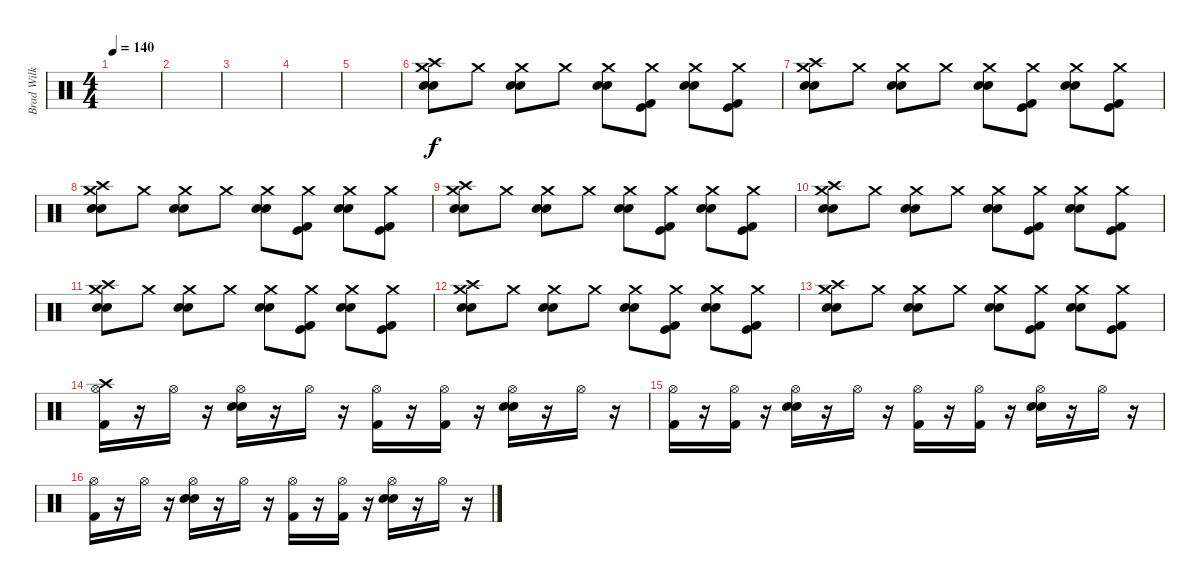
\track ("Brad Wilk" "Brad Wilk") {instrument percussion}
\staff {score}
\articulation defaults
\ts (4 4)
\tempo 140
\clef neutral
\ks c
|
|
|
|
|
("Crash medium (hit)" "Crash high (hit)" "Snare (hit) 2" "Electric Snare (hit)").8 "Crash medium (hit)".8 ("Crash medium (hit)" "Electric Snare (hit)" "Snare (hit) 2").8 "Crash medium (hit)".8 ("Crash medium (hit)" "Electric Snare (hit)" "Snare (hit) 2").8 ("Crash medium (hit)" "Kick (hit)" "Kick (hit) 2").8 ("Crash medium (hit)" "Electric Snare (hit)" "Snare (hit) 2").8 ("Crash medium (hit)" "Kick (hit)" "Kick (hit) 2").8 |
("Crash medium (hit)" "Crash high (hit)" "Snare (hit) 2" "Electric Snare (hit)").8 "Crash medium (hit)".8 ("Crash medium (hit)" "Electric Snare (hit)" "Snare (hit) 2").8 "Crash medium (hit)".8 ("Crash medium (hit)" "Electric Snare (hit)" "Snare (hit) 2").8 ("Crash medium (hit)" "Kick (hit)" "Kick (hit) 2").8 ("Crash medium (hit)" "Electric Snare (hit)" "Snare (hit) 2").8 ("Crash medium (hit)" "Kick (hit)" "Kick (hit) 2").8 |
("Crash medium (hit)" "Crash high (hit)" "Snare (hit) 2" "Electric Snare (hit)").8 "Crash medium (hit)".8 ("Crash medium (hit)" "Electric Snare (hit)" "Snare (hit) 2").8 "Crash medium (hit)".8 ("Crash medium (hit)" "Electric Snare (hit)" "Snare (hit) 2").8 ("Crash medium (hit)" "Kick (hit)" "Kick (hit) 2").8 ("Crash medium (hit)" "Electric Snare (hit)" "Snare (hit) 2").8 ("Crash medium (hit)" "Kick (hit)" "Kick (hit) 2").8 |
("Crash medium (hit)" "Crash high (hit)" "Snare (hit) 2" "Electric Snare (hit)").8 "Crash medium (hit)".8 ("Crash medium (hit)" "Electric Snare (hit)" "Snare (hit) 2").8 "Crash medium (hit)".8 ("Crash medium (hit)" "Electric Snare (hit)" "Snare (hit) 2").8 ("Crash medium (hit)" "Kick (hit)" "Kick (hit) 2").8 ("Crash medium (hit)" "Electric Snare (hit)" "Snare (hit) 2").8 ("Crash medium (hit)" "Kick (hit)" "Kick (hit) 2").8 |
("Crash medium (hit)" "Crash high (hit)" "Snare (hit) 2" "Electric Snare (hit)").8 "Crash medium (hit)".8 ("Crash medium (hit)" "Electric Snare (hit)" "Snare (hit) 2").8 "Crash medium (hit)".8 ("Crash medium (hit)" "Electric Snare (hit)" "Snare (hit) 2").8 ("Crash medium (hit)" "Kick (hit)" "Kick (hit) 2").8 ("Crash medium (hit)" "Electric Snare (hit)" "Snare (hit) 2").8 ("Crash medium (hit)" "Kick (hit)" "Kick (hit) 2").8 |
("Crash medium (hit)" "Crash high (hit)" "Snare (hit) 2" "Electric Snare (hit)").8 "Crash medium (hit)".8 ("Crash medium (hit)" "Electric Snare (hit)" "Snare (hit) 2").8 "Crash medium (hit)".8 ("Crash medium (hit)" "Electric Snare (hit)" "Snare (hit) 2").8 ("Crash medium (hit)" "Kick (hit)" "Kick (hit) 2").8 ("Crash medium (hit)" "Electric Snare (hit)" "Snare (hit) 2").8 ("Crash medium (hit)" "Kick (hit)" "Kick (hit) 2").8 |
("Crash medium (hit)" "Crash high (hit)" "Snare (hit) 2" "Electric Snare (hit)").8 "Crash medium (hit)".8 ("Crash medium (hit)" "Electric Snare (hit)" "Snare (hit) 2").8 "Crash medium (hit)".8 ("Crash medium (hit)" "Electric Snare (hit)" "Snare (hit) 2").8 ("Crash medium (hit)" "Kick (hit)" "Kick (hit) 2").8 ("Crash medium (hit)" "Electric Snare (hit)" "Snare (hit) 2").8 ("Crash medium (hit)" "Kick (hit)" "Kick (hit) 2").8 |
("Crash medium (hit)" "Crash high (hit)" "Snare (hit) 2" "Electric Snare (hit)").8 "Crash medium (hit)".8 ("Crash medium (hit)" "Electric Snare (hit)" "Snare (hit) 2").8 "Crash medium (hit)".8 ("Crash medium (hit)" "Electric Snare (hit)" "Snare (hit) 2").8 ("Crash medium (hit)" "Kick (hit)" "Kick (hit) 2").8 ("Crash medium (hit)" "Electric Snare (hit)" "Snare (hit) 2").8 ("Crash medium (hit)" "Kick (hit)" "Kick (hit) 2").8 |
("Hi-Hat (open)" "Crash high (hit)" "Kick (hit) 2").16 r.16 "Hi-Hat (open)".16 r.16 ("Hi-Hat (open)" "Electric Snare (hit)" "Snare (hit) 2").16 r.16 "Hi-Hat (open)".16 r.16 ("Hi-Hat (open)" "Kick (hit) 2").16 r.16 ("Hi-Hat (open)" "Kick (hit) 2").16 r.16 ("Hi-Hat (open)" "Electric Snare (hit)" "Snare (hit) 2").16 r.16 "Hi-Hat (open)".16 r.16 |
("Hi-Hat (open)" "Kick (hit) 2").16 r.16 ("Hi-Hat (open)" "Kick (hit) 2").16 r.16 ("Hi-Hat (open)" "Electric Snare (hit)" "Snare (hit) 2").16 r.16 "Hi-Hat (open)".16 r.16 ("Hi-Hat (open)" "Kick (hit) 2").16 r.16 ("Hi-Hat (open)" "Kick (hit) 2").16 r.16 ("Hi-Hat (open)" "Electric Snare (hit)" "Snare (hit) 2").16 r.16 "Hi-Hat (open)".16 r.16 |
("Hi-Hat (open)" "Kick (hit) 2").16 r.16 "Hi-Hat (open)".16 r.16 ("Hi-Hat (open)" "Electric Snare (hit)" "Snare (hit) 2").16 r.16 "Hi-Hat (open)".16 r.16 ("Hi-Hat (open)" "Kick (hit) 2").16 r.16 ("Hi-Hat (open)" "Kick (hit) 2").16 r.16 ("Hi-Hat (open)" "Electric Snare (hit)" "Snare (hit) 2").16 r.16 "Hi-Hat (open)".16 r.16
